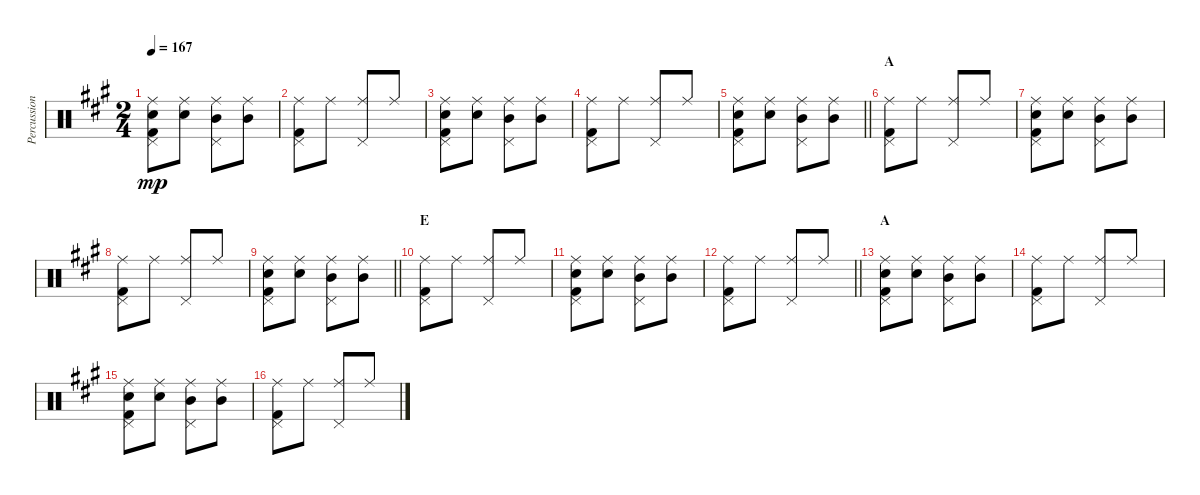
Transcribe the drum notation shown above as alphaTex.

\track ("Percussion" "Percussion") {instrument percussion}
\staff {score}
\articulation defaults
\ts (2 4)
\tempo 167
\clef neutral
\ks a
("Ride (middle)" "Snare (hit) 2" "Pedal Hi-Hat (hit)" "Kick (hit) 2").8{dy mp} ("Ride (middle)" "Snare (hit) 2").8 ("Ride (middle)" "Mid Tom (hit)" "Pedal Hi-Hat (hit)").8 ("Ride (middle)" "Mid Tom (hit)").8 |
("Ride (middle)" "Pedal Hi-Hat (hit)" "Kick (hit) 2").8 "Ride (middle)".8 ("Ride (middle)" "Pedal Hi-Hat (hit)").8 "Ride (middle)".8 |
("Ride (middle)" "Snare (hit) 2" "Pedal Hi-Hat (hit)" "Kick (hit) 2").8 ("Ride (middle)" "Snare (hit) 2").8 ("Ride (middle)" "Mid Tom (hit)" "Pedal Hi-Hat (hit)").8 ("Ride (middle)" "Mid Tom (hit)").8 |
("Ride (middle)" "Pedal Hi-Hat (hit)" "Kick (hit) 2").8 "Ride (middle)".8 ("Ride (middle)" "Pedal Hi-Hat (hit)").8 "Ride (middle)".8 |
\barLineRight lightlight
("Ride (middle)" "Snare (hit) 2" "Pedal Hi-Hat (hit)" "Kick (hit) 2").8 ("Ride (middle)" "Snare (hit) 2").8 ("Ride (middle)" "Mid Tom (hit)" "Pedal Hi-Hat (hit)").8 ("Ride (middle)" "Mid Tom (hit)").8 |
\section ("" "A")
("Ride (middle)" "Pedal Hi-Hat (hit)" "Kick (hit) 2").8 "Ride (middle)".8 ("Ride (middle)" "Pedal Hi-Hat (hit)").8 "Ride (middle)".8 |
("Ride (middle)" "Snare (hit) 2" "Pedal Hi-Hat (hit)" "Kick (hit) 2").8 ("Ride (middle)" "Snare (hit) 2").8 ("Ride (middle)" "Mid Tom (hit)" "Pedal Hi-Hat (hit)").8 ("Ride (middle)" "Mid Tom (hit)").8 |
("Ride (middle)" "Pedal Hi-Hat (hit)" "Kick (hit) 2").8 "Ride (middle)".8 ("Ride (middle)" "Pedal Hi-Hat (hit)").8 "Ride (middle)".8 |
\barLineRight lightlight
("Ride (middle)" "Snare (hit) 2" "Pedal Hi-Hat (hit)" "Kick (hit) 2").8 ("Ride (middle)" "Snare (hit) 2").8 ("Ride (middle)" "Mid Tom (hit)" "Pedal Hi-Hat (hit)").8 ("Ride (middle)" "Mid Tom (hit)").8 |
\section ("" "E")
("Ride (middle)" "Pedal Hi-Hat (hit)" "Kick (hit) 2").8 "Ride (middle)".8 ("Ride (middle)" "Pedal Hi-Hat (hit)").8 "Ride (middle)".8 |
("Ride (middle)" "Snare (hit) 2" "Pedal Hi-Hat (hit)" "Kick (hit) 2").8 ("Ride (middle)" "Snare (hit) 2").8 ("Ride (middle)" "Mid Tom (hit)" "Pedal Hi-Hat (hit)").8 ("Ride (middle)" "Mid Tom (hit)").8 |
\barLineRight lightlight
("Ride (middle)" "Pedal Hi-Hat (hit)" "Kick (hit) 2").8 "Ride (middle)".8 ("Ride (middle)" "Pedal Hi-Hat (hit)").8 "Ride (middle)".8 |
\section ("" "A")
("Ride (middle)" "Snare (hit) 2" "Pedal Hi-Hat (hit)" "Kick (hit) 2").8 ("Ride (middle)" "Snare (hit) 2").8 ("Ride (middle)" "Mid Tom (hit)" "Pedal Hi-Hat (hit)").8 ("Ride (middle)" "Mid Tom (hit)").8 |
("Ride (middle)" "Pedal Hi-Hat (hit)" "Kick (hit) 2").8 "Ride (middle)".8 ("Ride (middle)" "Pedal Hi-Hat (hit)").8 "Ride (middle)".8 |
("Ride (middle)" "Snare (hit) 2" "Pedal Hi-Hat (hit)" "Kick (hit) 2").8 ("Ride (middle)" "Snare (hit) 2").8 ("Ride (middle)" "Mid Tom (hit)" "Pedal Hi-Hat (hit)").8 ("Ride (middle)" "Mid Tom (hit)").8 |
("Ride (middle)" "Pedal Hi-Hat (hit)" "Kick (hit) 2").8 "Ride (middle)".8 ("Ride (middle)" "Pedal Hi-Hat (hit)").8 "Ride (middle)".8
